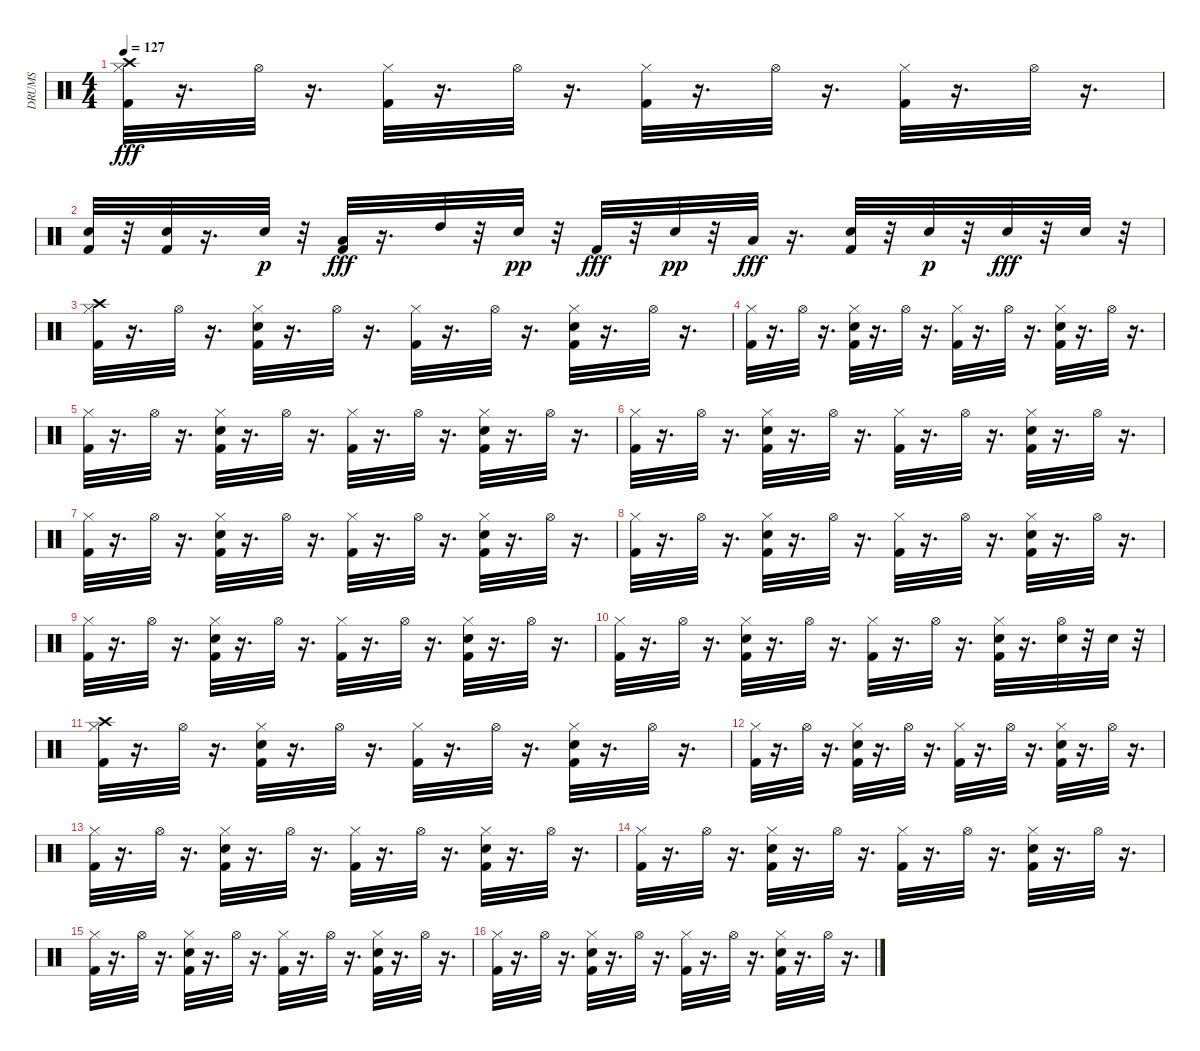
\track ("DRUMS" "DRUMS") {instrument percussion}
\staff {score}
\articulation defaults
\ts (4 4)
\tempo 127
\clef neutral
\ks c
("Crash high (hit)" "Hi-Hat (closed)" "Kick (hit) 2").32{dy fff} r.16{d} "Hi-Hat (open)".32 r.16{d} ("Hi-Hat (closed)" "Kick (hit) 2").32 r.16{d} "Hi-Hat (open)".32 r.16{d} ("Kick (hit) 2" "Hi-Hat (closed)").32 r.16{d} "Hi-Hat (open)".32 r.16{d} ("Kick (hit) 2" "Hi-Hat (closed)").32 r.16{d} "Hi-Hat (open)".32 r.16{d} |
("Snare (hit) 2" "Kick (hit) 2").32 r.32 ("Snare (hit) 2" "Kick (hit) 2").32 r.16{d} "Snare (hit) 2".32{dy p} r.32 ("Low Tom (hit)" "Kick (hit) 2").32{dy fff} r.16{d} "High Tom (hit)".32 r.32 "Snare (hit) 2".32{dy pp} r.32 "Kick (hit) 2".32{dy fff} r.32 "Snare (hit) 2".32{dy pp} r.32 "Low Floor Tom (hit)".32{dy fff} r.16{d} ("Snare (hit) 2" "Kick (hit) 2").32 r.32 "Snare (hit) 2".32{dy p} r.32 "Snare (hit) 2".32{dy fff} r.32 "Snare (hit) 2".32 r.32 |
("Crash high (hit)" "Hi-Hat (closed)" "Kick (hit) 2").32 r.16{d} "Hi-Hat (open)".32 r.16{d} ("Hi-Hat (closed)" "Snare (hit) 2" "Kick (hit) 2").32 r.16{d} "Hi-Hat (open)".32 r.16{d} ("Hi-Hat (closed)" "Kick (hit) 2").32 r.16{d} "Hi-Hat (open)".32 r.16{d} ("Hi-Hat (closed)" "Snare (hit) 2" "Kick (hit) 2").32 r.16{d} "Hi-Hat (open)".32 r.16{d} |
("Hi-Hat (closed)" "Kick (hit) 2").32 r.16{d} "Hi-Hat (open)".32 r.16{d} ("Hi-Hat (closed)" "Snare (hit) 2" "Kick (hit) 2").32 r.16{d} "Hi-Hat (open)".32 r.16{d} ("Hi-Hat (closed)" "Kick (hit) 2").32 r.16{d} "Hi-Hat (open)".32 r.16{d} ("Hi-Hat (closed)" "Snare (hit) 2" "Kick (hit) 2").32 r.16{d} "Hi-Hat (open)".32 r.16{d} |
("Hi-Hat (closed)" "Kick (hit) 2").32 r.16{d} "Hi-Hat (open)".32 r.16{d} ("Hi-Hat (closed)" "Snare (hit) 2" "Kick (hit) 2").32 r.16{d} "Hi-Hat (open)".32 r.16{d} ("Hi-Hat (closed)" "Kick (hit) 2").32 r.16{d} "Hi-Hat (open)".32 r.16{d} ("Kick (hit) 2" "Hi-Hat (closed)" "Snare (hit) 2").32 r.16{d} "Hi-Hat (open)".32 r.16{d} |
("Hi-Hat (closed)" "Kick (hit) 2").32 r.16{d} "Hi-Hat (open)".32 r.16{d} ("Hi-Hat (closed)" "Snare (hit) 2" "Kick (hit) 2").32 r.16{d} "Hi-Hat (open)".32 r.16{d} ("Hi-Hat (closed)" "Kick (hit) 2").32 r.16{d} "Hi-Hat (open)".32 r.16{d} ("Hi-Hat (closed)" "Snare (hit) 2" "Kick (hit) 2").32 r.16{d} "Hi-Hat (open)".32 r.16{d} |
("Hi-Hat (closed)" "Kick (hit) 2").32 r.16{d} "Hi-Hat (open)".32 r.16{d} ("Kick (hit) 2" "Hi-Hat (closed)" "Snare (hit) 2").32 r.16{d} "Hi-Hat (open)".32 r.16{d} ("Kick (hit) 2" "Hi-Hat (closed)").32 r.16{d} "Hi-Hat (open)".32 r.16{d} ("Kick (hit) 2" "Hi-Hat (closed)" "Snare (hit) 2").32 r.16{d} "Hi-Hat (open)".32 r.16{d} |
("Hi-Hat (closed)" "Kick (hit) 2").32 r.16{d} "Hi-Hat (open)".32 r.16{d} ("Hi-Hat (closed)" "Snare (hit) 2" "Kick (hit) 2").32 r.16{d} "Hi-Hat (open)".32 r.16{d} ("Hi-Hat (closed)" "Kick (hit) 2").32 r.16{d} "Hi-Hat (open)".32 r.16{d} ("Hi-Hat (closed)" "Snare (hit) 2" "Kick (hit) 2").32 r.16{d} "Hi-Hat (open)".32 r.16{d} |
("Hi-Hat (closed)" "Kick (hit) 2").32 r.16{d} "Hi-Hat (open)".32 r.16{d} ("Hi-Hat (closed)" "Snare (hit) 2" "Kick (hit) 2").32 r.16{d} "Hi-Hat (open)".32 r.16{d} ("Hi-Hat (closed)" "Kick (hit) 2").32 r.16{d} "Hi-Hat (open)".32 r.16{d} ("Hi-Hat (closed)" "Snare (hit) 2" "Kick (hit) 2").32 r.16{d} "Hi-Hat (open)".32 r.16{d} |
("Hi-Hat (closed)" "Kick (hit) 2").32 r.16{d} "Hi-Hat (open)".32 r.16{d} ("Hi-Hat (closed)" "Snare (hit) 2" "Kick (hit) 2").32 r.16{d} "Hi-Hat (open)".32 r.16{d} ("Hi-Hat (closed)" "Kick (hit) 2").32 r.16{d} "Hi-Hat (open)".32 r.16{d} ("Kick (hit) 2" "Hi-Hat (closed)" "Snare (hit) 2").32 r.16{d} ("Snare (hit) 2" "Hi-Hat (open)").32 r.32 "Snare (hit) 2".32 r.32 |
("Crash high (hit)" "Hi-Hat (closed)" "Kick (hit) 2").32 r.16{d} "Hi-Hat (open)".32 r.16{d} ("Hi-Hat (closed)" "Snare (hit) 2" "Kick (hit) 2").32 r.16{d} "Hi-Hat (open)".32 r.16{d} ("Hi-Hat (closed)" "Kick (hit) 2").32 r.16{d} "Hi-Hat (open)".32 r.16{d} ("Kick (hit) 2" "Hi-Hat (closed)" "Snare (hit) 2").32 r.16{d} "Hi-Hat (open)".32 r.16{d} |
("Hi-Hat (closed)" "Kick (hit) 2").32 r.16{d} "Hi-Hat (open)".32 r.16{d} ("Hi-Hat (closed)" "Snare (hit) 2" "Kick (hit) 2").32 r.16{d} "Hi-Hat (open)".32 r.16{d} ("Hi-Hat (closed)" "Kick (hit) 2").32 r.16{d} "Hi-Hat (open)".32 r.16{d} ("Kick (hit) 2" "Hi-Hat (closed)" "Snare (hit) 2").32 r.16{d} "Hi-Hat (open)".32 r.16{d} |
("Hi-Hat (closed)" "Kick (hit) 2").32 r.16{d} "Hi-Hat (open)".32 r.16{d} ("Kick (hit) 2" "Hi-Hat (closed)" "Snare (hit) 2").32 r.16{d} "Hi-Hat (open)".32 r.16{d} ("Hi-Hat (closed)" "Kick (hit) 2").32 r.16{d} "Hi-Hat (open)".32 r.16{d} ("Hi-Hat (closed)" "Snare (hit) 2" "Kick (hit) 2").32 r.16{d} "Hi-Hat (open)".32 r.16{d} |
("Hi-Hat (closed)" "Kick (hit) 2").32 r.16{d} "Hi-Hat (open)".32 r.16{d} ("Hi-Hat (closed)" "Snare (hit) 2" "Kick (hit) 2").32 r.16{d} "Hi-Hat (open)".32 r.16{d} ("Hi-Hat (closed)" "Kick (hit) 2").32 r.16{d} "Hi-Hat (open)".32 r.16{d} ("Kick (hit) 2" "Hi-Hat (closed)" "Snare (hit) 2").32 r.16{d} "Hi-Hat (open)".32 r.16{d} |
("Hi-Hat (closed)" "Kick (hit) 2").32 r.16{d} "Hi-Hat (open)".32 r.16{d} ("Kick (hit) 2" "Hi-Hat (closed)" "Snare (hit) 2").32 r.16{d} "Hi-Hat (open)".32 r.16{d} ("Hi-Hat (closed)" "Kick (hit) 2").32 r.16{d} "Hi-Hat (open)".32 r.16{d} ("Hi-Hat (closed)" "Snare (hit) 2" "Kick (hit) 2").32 r.16{d} "Hi-Hat (open)".32 r.16{d} |
("Hi-Hat (closed)" "Kick (hit) 2").32 r.16{d} "Hi-Hat (open)".32 r.16{d} ("Hi-Hat (closed)" "Snare (hit) 2" "Kick (hit) 2").32 r.16{d} "Hi-Hat (open)".32 r.16{d} ("Hi-Hat (closed)" "Kick (hit) 2").32 r.16{d} "Hi-Hat (open)".32 r.16{d} ("Kick (hit) 2" "Hi-Hat (closed)" "Snare (hit) 2").32 r.16{d} "Hi-Hat (open)".32 r.16{d}
